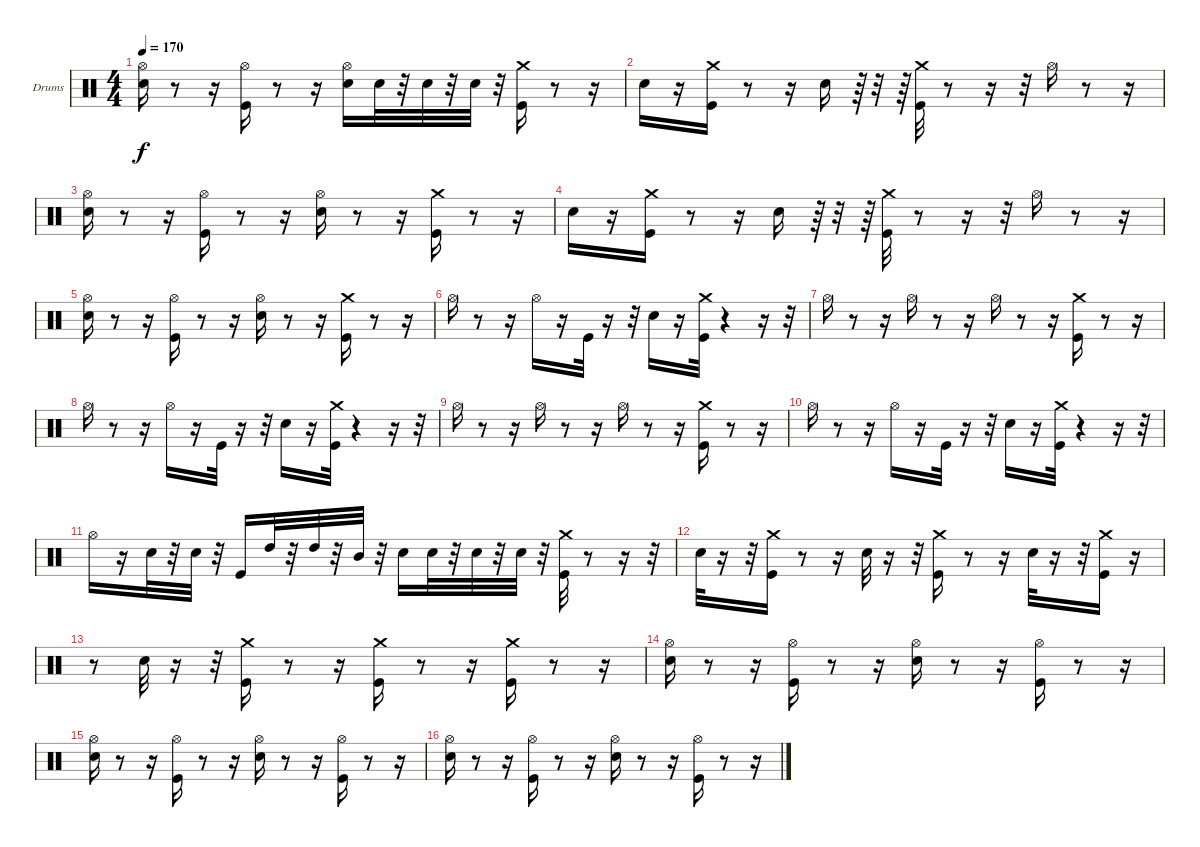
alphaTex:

\bracketExtendMode groupsimilarinstruments
\firstSystemTrackNameOrientation horizontal
\otherSystemsTrackNameOrientation horizontal
\track ("Thomas" "Drums") {instrument percussion}
\staff {score}
\articulation defaults
\ts (4 4)
\tempo 170
\clef neutral
\ks c
("Snare (hit) 2" "Hi-Hat (open)").16{dy f} r.8 r.16 ("Kick (hit)" "Hi-Hat (open)").16 r.8 r.16 ("Snare (hit) 2" "Hi-Hat (open)").16 "Snare (hit) 2".32 r.32 "Snare (hit) 2".32 r.32 "Snare (hit) 2".32 r.32 ("Crash medium (hit)" "Kick (hit)").16 r.8 r.16 |
"Snare (hit) 2".16 r.16 ("Kick (hit)" "Crash medium (hit)").16 r.8 r.16 "Snare (hit) 2".16 r.64 r.32 r.64 ("Kick (hit)" "Crash medium (hit)").32 r.8 r.16 r.32 "Hi-Hat (open)".16 r.8 r.16 |
("Hi-Hat (open)" "Snare (hit) 2").16 r.8 r.16 ("Hi-Hat (open)" "Kick (hit)").16 r.8 r.16 ("Hi-Hat (open)" "Snare (hit) 2").16 r.8 r.16 ("Kick (hit)" "Crash medium (hit)").16 r.8 r.16 |
"Snare (hit) 2".16 r.16 ("Kick (hit)" "Crash medium (hit)").16 r.8 r.16 "Snare (hit) 2".16 r.64 r.32 r.64 ("Kick (hit)" "Crash medium (hit)").32 r.8 r.16 r.32 "Hi-Hat (open)".16 r.8 r.16 |
("Hi-Hat (open)" "Snare (hit) 2").16 r.8 r.16 ("Hi-Hat (open)" "Kick (hit)").16 r.8 r.16 ("Hi-Hat (open)" "Snare (hit) 2").16 r.8 r.16 ("Kick (hit)" "Crash medium (hit)").16 r.8 r.16 |
"Hi-Hat (open)".16 r.8 r.16 "Hi-Hat (open)".16 r.16 "Kick (hit)".32 r.16 r.32 "Snare (hit) 2".16 r.16 ("Kick (hit)" "Crash medium (hit)").32 r.4 r.16 r.32 |
"Hi-Hat (open)".16 r.8 r.16 "Hi-Hat (open)".16 r.8 r.16 "Hi-Hat (open)".16 r.8 r.16 ("Kick (hit)" "Crash medium (hit)").16 r.8 r.16 |
"Hi-Hat (open)".16 r.8 r.16 "Hi-Hat (open)".16 r.16 "Kick (hit)".32 r.16 r.32 "Snare (hit) 2".16 r.16 ("Kick (hit)" "Crash medium (hit)").32 r.4 r.16 r.32 |
"Hi-Hat (open)".16 r.8 r.16 "Hi-Hat (open)".16 r.8 r.16 "Hi-Hat (open)".16 r.8 r.16 ("Kick (hit)" "Crash medium (hit)").16 r.8 r.16 |
"Hi-Hat (open)".16 r.8 r.16 "Hi-Hat (open)".16 r.16 "Kick (hit)".32 r.16 r.32 "Snare (hit) 2".16 r.16 ("Kick (hit)" "Crash medium (hit)").32 r.4 r.16 r.32 |
"Hi-Hat (open)".16 r.16 "Snare (hit) 2".32 r.32 "Snare (hit) 2".32 r.32 "Kick (hit)".16 "High Tom (hit)".32 r.32 "High Tom (hit)".32 r.32 "Mid Tom (hit)".32 r.32 "Snare (hit) 2".16 "Snare (hit) 2".32 r.32 "Snare (hit) 2".32 r.32 "Snare (hit) 2".32 r.32 ("Kick (hit)" "Crash medium (hit)").32 r.8 r.16 r.32 |
"Snare (hit) 2".32 r.16 r.32 ("Kick (hit)" "Crash medium (hit)").16 r.8 r.16 "Snare (hit) 2".32 r.16 r.32 ("Kick (hit)" "Crash medium (hit)").16 r.8 r.16 "Snare (hit) 2".32 r.16 r.32 ("Kick (hit)" "Crash medium (hit)").16 r.16 |
r.8 "Snare (hit) 2".32 r.16 r.32 ("Kick (hit)" "Crash medium (hit)").16 r.8 r.16 ("Kick (hit)" "Crash medium (hit)").16 r.8 r.16 ("Kick (hit)" "Crash medium (hit)").16 r.8 r.16 |
("Hi-Hat (open)" "Snare (hit) 2").16 r.8 r.16 ("Kick (hit)" "Hi-Hat (open)").16 r.8 r.16 ("Snare (hit) 2" "Hi-Hat (open)").16 r.8 r.16 ("Kick (hit)" "Hi-Hat (open)").16 r.8 r.16 |
("Snare (hit) 2" "Hi-Hat (open)").16 r.8 r.16 ("Kick (hit)" "Hi-Hat (open)").16 r.8 r.16 ("Snare (hit) 2" "Hi-Hat (open)").16 r.8 r.16 ("Kick (hit)" "Hi-Hat (open)").16 r.8 r.16 |
("Hi-Hat (open)" "Snare (hit) 2").16 r.8 r.16 ("Kick (hit)" "Hi-Hat (open)").16 r.8 r.16 ("Snare (hit) 2" "Hi-Hat (open)").16 r.8 r.16 ("Kick (hit)" "Hi-Hat (open)").16 r.8 r.16
